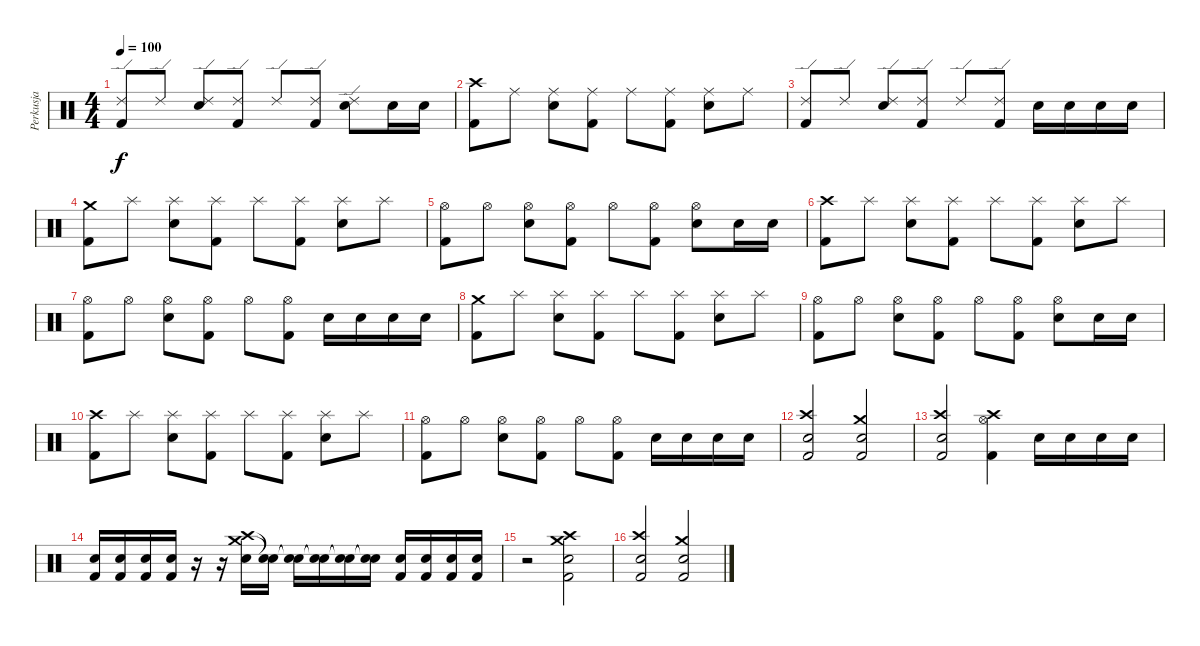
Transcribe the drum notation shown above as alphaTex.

\track ("Perkusja" "Perkusja") {instrument percussion}
\staff {score}
\articulation defaults
\ts (4 4)
\tempo 100
\clef neutral
\ks c
("Ride (edge) 2" "Kick (hit) 2").8{dy f} "Ride (edge) 2".8 ("Ride (edge) 2" "Electric Snare (hit)").8 ("Ride (edge) 2" "Kick (hit) 2").8 "Ride (edge) 2".8 ("Ride (edge) 2" "Kick (hit) 2").8 ("Ride (edge) 2" "Electric Snare (hit)").8 "Electric Snare (hit)".16 "Electric Snare (hit)".16 |
("Crash high (hit)" "Kick (hit) 2").8 "Ride (middle)".8 ("Ride (middle)" "Electric Snare (hit)").8 ("Ride (middle)" "Kick (hit) 2").8 "Ride (middle)".8 ("Ride (middle)" "Kick (hit) 2").8 ("Ride (middle)" "Electric Snare (hit)").8 "Ride (middle)".8 |
("Ride (edge) 2" "Kick (hit) 2").8 "Ride (edge) 2".8 ("Ride (edge) 2" "Electric Snare (hit)").8 ("Ride (edge) 2" "Kick (hit) 2").8 "Ride (edge) 2".8 ("Ride (edge) 2" "Kick (hit) 2").8 "Electric Snare (hit)".16 "Electric Snare (hit)".16 "Electric Snare (hit)".16 "Electric Snare (hit)".16 |
("Crash medium (hit)" "Kick (hit) 2").8 "Splash (hit)".8 ("Splash (hit)" "Electric Snare (hit)").8 ("Splash (hit)" "Kick (hit) 2").8 "Splash (hit)".8 ("Splash (hit)" "Kick (hit) 2").8 ("Splash (hit)" "Electric Snare (hit)").8 "Splash (hit)".8 |
("Hi-Hat (open)" "Kick (hit) 2").8 "Hi-Hat (open)".8 ("Hi-Hat (open)" "Electric Snare (hit)").8 ("Hi-Hat (open)" "Kick (hit) 2").8 "Hi-Hat (open)".8 ("Hi-Hat (open)" "Kick (hit) 2").8 ("Hi-Hat (open)" "Electric Snare (hit)").8 "Electric Snare (hit)".16 "Electric Snare (hit)".16 |
("Crash high (hit)" "Kick (hit) 2").8 "Splash (hit)".8 ("Splash (hit)" "Electric Snare (hit)").8 ("Splash (hit)" "Kick (hit) 2").8 "Splash (hit)".8 ("Splash (hit)" "Kick (hit) 2").8 ("Splash (hit)" "Electric Snare (hit)").8 "Splash (hit)".8 |
("Hi-Hat (open)" "Kick (hit) 2").8 "Hi-Hat (open)".8 ("Hi-Hat (open)" "Electric Snare (hit)").8 ("Hi-Hat (open)" "Kick (hit) 2").8 "Hi-Hat (open)".8 ("Hi-Hat (open)" "Kick (hit) 2").8 "Electric Snare (hit)".16 "Electric Snare (hit)".16 "Electric Snare (hit)".16 "Electric Snare (hit)".16 |
("Crash medium (hit)" "Kick (hit) 2").8 "Splash (hit)".8 ("Splash (hit)" "Electric Snare (hit)").8 ("Splash (hit)" "Kick (hit) 2").8 "Splash (hit)".8 ("Splash (hit)" "Kick (hit) 2").8 ("Splash (hit)" "Electric Snare (hit)").8 "Splash (hit)".8 |
("Hi-Hat (open)" "Kick (hit) 2").8 "Hi-Hat (open)".8 ("Hi-Hat (open)" "Electric Snare (hit)").8 ("Hi-Hat (open)" "Kick (hit) 2").8 "Hi-Hat (open)".8 ("Hi-Hat (open)" "Kick (hit) 2").8 ("Hi-Hat (open)" "Electric Snare (hit)").8 "Electric Snare (hit)".16 "Electric Snare (hit)".16 |
("Crash high (hit)" "Kick (hit) 2").8 "Splash (hit)".8 ("Splash (hit)" "Electric Snare (hit)").8 ("Splash (hit)" "Kick (hit) 2").8 "Splash (hit)".8 ("Splash (hit)" "Kick (hit) 2").8 ("Splash (hit)" "Electric Snare (hit)").8 "Splash (hit)".8 |
("Hi-Hat (open)" "Kick (hit) 2").8 "Hi-Hat (open)".8 ("Hi-Hat (open)" "Electric Snare (hit)").8 ("Hi-Hat (open)" "Kick (hit) 2").8 "Hi-Hat (open)".8 ("Hi-Hat (open)" "Kick (hit) 2").8 "Electric Snare (hit)".16 "Electric Snare (hit)".16 "Electric Snare (hit)".16 "Electric Snare (hit)".16 |
("Crash high (hit)" "Snare (hit) 2" "Kick (hit) 2").2 ("Crash medium (hit)" "Snare (hit) 2" "Kick (hit) 2").2 |
("Crash high (hit)" "Snare (hit) 2" "Kick (hit) 2").2 ("Crash high (hit)" "Hi-Hat (open)" "Kick (hit) 2").4 "Electric Snare (hit)".16 "Electric Snare (hit)".16 "Electric Snare (hit)".16 "Electric Snare (hit)".16 |
("Snare (hit) 2" "Kick (hit) 2").16 ("Snare (hit) 2" "Kick (hit) 2").16 ("Snare (hit) 2" "Kick (hit) 2").16 ("Snare (hit) 2" "Kick (hit) 2").16 r.16 r.16 ("Crash medium (hit)" "Crash high (hit)" "Electric Snare (hit)").16 ("Snare (hit)"{t} "Snare (hit)"{t}).16 ("Snare (hit)"{t} "Snare (hit)"{t}).16 ("Snare (hit)"{t} "Snare (hit)"{t}).16 ("Snare (hit)"{t} "Snare (hit)"{t}).16 ("Snare (hit)"{t} "Snare (hit)"{t}).16 ("Electric Snare (hit)" "Kick (hit) 2").16 ("Electric Snare (hit)" "Kick (hit) 2").16 ("Electric Snare (hit)" "Kick (hit) 2").16 ("Electric Snare (hit)" "Kick (hit) 2").16 |
r.2 ("Electric Snare (hit)" "Kick (hit) 2" "Crash medium (hit)" "Crash high (hit)").2 |
("Crash high (hit)" "Snare (hit) 2" "Kick (hit) 2").2 ("Crash medium (hit)" "Snare (hit) 2" "Kick (hit) 2").2
